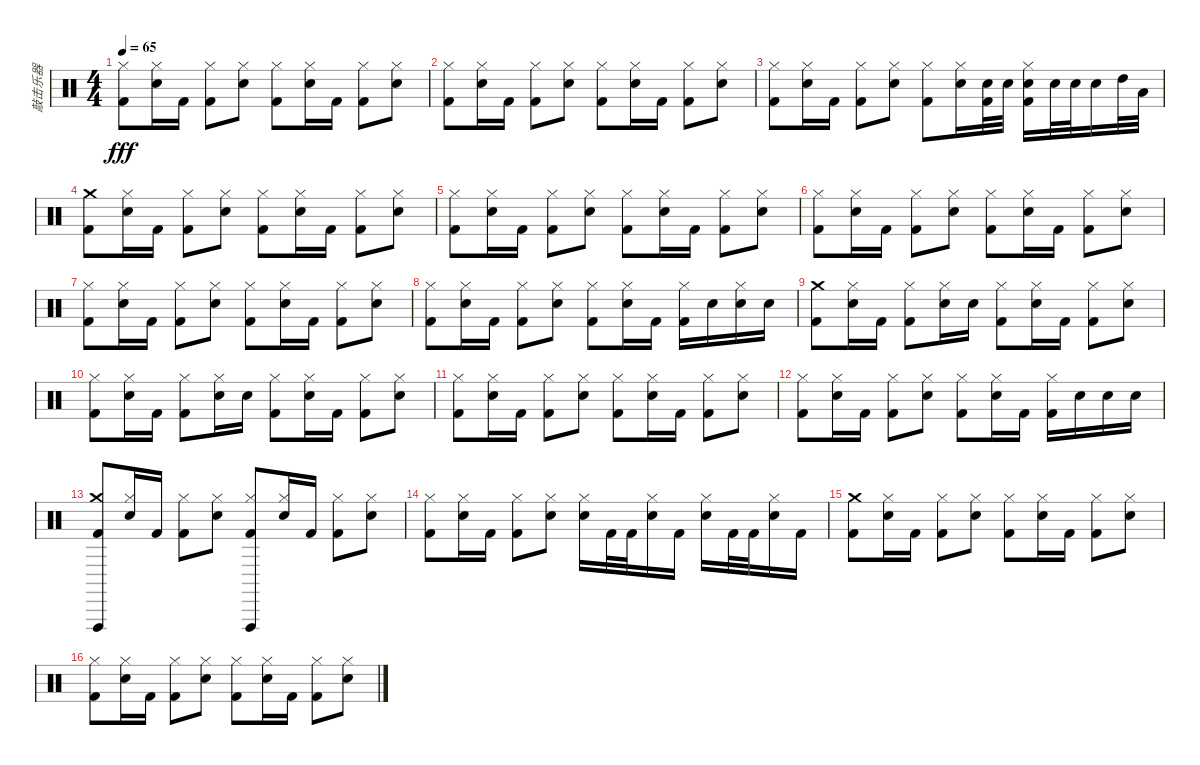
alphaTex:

\track ("敲击乐器" "敲击乐器") {instrument percussion}
\staff {score}
\articulation defaults
\ts (4 4)
\tempo 65
\clef neutral
\ks c
("Hi-Hat (closed)" "Kick (hit) 2").8{dy fff} ("Hi-Hat (closed)" "Electric Snare (hit)").16 "Kick (hit) 2".16 ("Hi-Hat (closed)" "Kick (hit) 2").8 ("Hi-Hat (closed)" "Electric Snare (hit)").8 ("Hi-Hat (closed)" "Kick (hit) 2").8 ("Hi-Hat (closed)" "Electric Snare (hit)").16 "Kick (hit) 2".16 ("Hi-Hat (closed)" "Kick (hit) 2").8 ("Hi-Hat (closed)" "Electric Snare (hit)").8 |
("Hi-Hat (closed)" "Kick (hit) 2").8 ("Hi-Hat (closed)" "Electric Snare (hit)").16 "Kick (hit) 2".16 ("Hi-Hat (closed)" "Kick (hit) 2").8 ("Hi-Hat (closed)" "Electric Snare (hit)").8 ("Hi-Hat (closed)" "Kick (hit) 2").8 ("Hi-Hat (closed)" "Electric Snare (hit)").16 "Kick (hit) 2".16 ("Hi-Hat (closed)" "Kick (hit) 2").8 ("Hi-Hat (closed)" "Electric Snare (hit)").8 |
("Hi-Hat (closed)" "Kick (hit) 2").8 ("Hi-Hat (closed)" "Electric Snare (hit)").16 "Kick (hit) 2".16 ("Hi-Hat (closed)" "Kick (hit) 2").8 ("Hi-Hat (closed)" "Electric Snare (hit)").8 ("Hi-Hat (closed)" "Kick (hit) 2").8 ("Hi-Hat (closed)" "Electric Snare (hit)").16 ("Electric Snare (hit)" "Kick (hit) 2").32 "Electric Snare (hit)".32 ("Hi-Hat (closed)" "Electric Snare (hit)" "Kick (hit) 2").16 "Electric Snare (hit)".32 "Electric Snare (hit)".32 "Electric Snare (hit)".16 "High Tom (hit)".32 "Low Tom (hit)".32 |
("Crash medium (hit)" "Kick (hit) 2").8 ("Hi-Hat (closed)" "Electric Snare (hit)").16 "Kick (hit) 2".16 ("Hi-Hat (closed)" "Kick (hit) 2").8 ("Hi-Hat (closed)" "Electric Snare (hit)").8 ("Hi-Hat (closed)" "Kick (hit) 2").8 ("Hi-Hat (closed)" "Electric Snare (hit)").16 "Kick (hit) 2".16 ("Hi-Hat (closed)" "Kick (hit) 2").8 ("Hi-Hat (closed)" "Electric Snare (hit)").8 |
("Hi-Hat (closed)" "Kick (hit) 2").8 ("Hi-Hat (closed)" "Electric Snare (hit)").16 "Kick (hit) 2".16 ("Hi-Hat (closed)" "Kick (hit) 2").8 ("Hi-Hat (closed)" "Electric Snare (hit)").8 ("Hi-Hat (closed)" "Kick (hit) 2").8 ("Hi-Hat (closed)" "Electric Snare (hit)").16 "Kick (hit) 2".16 ("Hi-Hat (closed)" "Kick (hit) 2").8 ("Hi-Hat (closed)" "Electric Snare (hit)").8 |
("Hi-Hat (closed)" "Kick (hit) 2").8 ("Hi-Hat (closed)" "Electric Snare (hit)").16 "Kick (hit) 2".16 ("Hi-Hat (closed)" "Kick (hit) 2").8 ("Hi-Hat (closed)" "Electric Snare (hit)").8 ("Hi-Hat (closed)" "Kick (hit) 2").8 ("Hi-Hat (closed)" "Electric Snare (hit)").16 "Kick (hit) 2".16 ("Hi-Hat (closed)" "Kick (hit) 2").8 ("Hi-Hat (closed)" "Electric Snare (hit)").8 |
("Hi-Hat (closed)" "Kick (hit) 2").8 ("Hi-Hat (closed)" "Electric Snare (hit)").16 "Kick (hit) 2".16 ("Hi-Hat (closed)" "Kick (hit) 2").8 ("Hi-Hat (closed)" "Electric Snare (hit)").8 ("Hi-Hat (closed)" "Kick (hit) 2").8 ("Hi-Hat (closed)" "Electric Snare (hit)").16 "Kick (hit) 2".16 ("Hi-Hat (closed)" "Kick (hit) 2").8 ("Hi-Hat (closed)" "Electric Snare (hit)").8 |
("Hi-Hat (closed)" "Kick (hit) 2").8 ("Hi-Hat (closed)" "Electric Snare (hit)").16 "Kick (hit) 2".16 ("Hi-Hat (closed)" "Kick (hit) 2").8 ("Hi-Hat (closed)" "Electric Snare (hit)").8 ("Hi-Hat (closed)" "Kick (hit) 2").8 ("Hi-Hat (closed)" "Electric Snare (hit)").16 "Kick (hit) 2".16 ("Hi-Hat (closed)" "Kick (hit) 2").16 "Electric Snare (hit)".16 ("Hi-Hat (closed)" "Electric Snare (hit)").16 "Electric Snare (hit)".16 |
("Crash medium (hit)" "Kick (hit) 2").8 ("Hi-Hat (closed)" "Electric Snare (hit)").16 "Kick (hit) 2".16 ("Hi-Hat (closed)" "Kick (hit) 2").8 ("Hi-Hat (closed)" "Electric Snare (hit)").16 "Electric Snare (hit)".16 ("Hi-Hat (closed)" "Kick (hit) 2").8 ("Hi-Hat (closed)" "Electric Snare (hit)").16 "Kick (hit) 2".16 ("Hi-Hat (closed)" "Kick (hit) 2").8 ("Hi-Hat (closed)" "Electric Snare (hit)").8 |
("Hi-Hat (closed)" "Kick (hit) 2").8 ("Hi-Hat (closed)" "Electric Snare (hit)").16 "Kick (hit) 2".16 ("Hi-Hat (closed)" "Kick (hit) 2").8 ("Hi-Hat (closed)" "Electric Snare (hit)").16 "Electric Snare (hit)".16 ("Hi-Hat (closed)" "Kick (hit) 2").8 ("Hi-Hat (closed)" "Electric Snare (hit)").16 "Kick (hit) 2".16 ("Hi-Hat (closed)" "Kick (hit) 2").8 ("Hi-Hat (closed)" "Electric Snare (hit)").8 |
("Hi-Hat (closed)" "Kick (hit) 2").8 ("Hi-Hat (closed)" "Electric Snare (hit)").16 "Kick (hit) 2".16 ("Hi-Hat (closed)" "Kick (hit) 2").8 ("Hi-Hat (closed)" "Electric Snare (hit)").8 ("Hi-Hat (closed)" "Kick (hit) 2").8 ("Hi-Hat (closed)" "Electric Snare (hit)").16 "Kick (hit) 2".16 ("Hi-Hat (closed)" "Kick (hit) 2").8 ("Hi-Hat (closed)" "Electric Snare (hit)").8 |
("Hi-Hat (closed)" "Kick (hit) 2").8 ("Hi-Hat (closed)" "Electric Snare (hit)").16 "Kick (hit) 2".16 ("Hi-Hat (closed)" "Kick (hit) 2").8 ("Hi-Hat (closed)" "Electric Snare (hit)").8 ("Hi-Hat (closed)" "Kick (hit) 2").8 ("Hi-Hat (closed)" "Electric Snare (hit)").16 "Kick (hit) 2".16 ("Hi-Hat (closed)" "Kick (hit) 2").16 "Electric Snare (hit)".16 "Electric Snare (hit)".16 "Electric Snare (hit)".16 |
("Crash medium (hit)" "Vibraslap (hit)" "Kick (hit) 2").8 ("Hi-Hat (closed)" "Electric Snare (hit)").16 "Kick (hit) 2".16 ("Hi-Hat (closed)" "Kick (hit) 2").8 ("Hi-Hat (closed)" "Electric Snare (hit)").8 ("Hi-Hat (closed)" "Vibraslap (hit)" "Kick (hit) 2").8 ("Hi-Hat (closed)" "Electric Snare (hit)").16 "Kick (hit) 2".16 ("Hi-Hat (closed)" "Kick (hit) 2").8 ("Hi-Hat (closed)" "Electric Snare (hit)").8 |
("Hi-Hat (closed)" "Kick (hit) 2").8 ("Hi-Hat (closed)" "Electric Snare (hit)").16 "Kick (hit) 2".16 ("Hi-Hat (closed)" "Kick (hit) 2").8 ("Hi-Hat (closed)" "Electric Snare (hit)").8 ("Hi-Hat (closed)" "Electric Snare (hit)").16 "Kick (hit) 2".32 "Kick (hit) 2".32 ("Hi-Hat (closed)" "Electric Snare (hit)").16 "Kick (hit) 2".16 ("Hi-Hat (closed)" "Electric Snare (hit)").16 "Kick (hit) 2".32 "Kick (hit) 2".32 ("Hi-Hat (closed)" "Electric Snare (hit)").16 "Kick (hit) 2".16 |
("Crash medium (hit)" "Kick (hit) 2").8 ("Hi-Hat (closed)" "Electric Snare (hit)").16 "Kick (hit) 2".16 ("Hi-Hat (closed)" "Kick (hit) 2").8 ("Hi-Hat (closed)" "Electric Snare (hit)").8 ("Hi-Hat (closed)" "Kick (hit) 2").8 ("Hi-Hat (closed)" "Electric Snare (hit)").16 "Kick (hit) 2".16 ("Hi-Hat (closed)" "Kick (hit) 2").8 ("Hi-Hat (closed)" "Electric Snare (hit)").8 |
("Hi-Hat (closed)" "Kick (hit) 2").8 ("Hi-Hat (closed)" "Electric Snare (hit)").16 "Kick (hit) 2".16 ("Hi-Hat (closed)" "Kick (hit) 2").8 ("Hi-Hat (closed)" "Electric Snare (hit)").8 ("Hi-Hat (closed)" "Kick (hit) 2").8 ("Hi-Hat (closed)" "Electric Snare (hit)").16 "Kick (hit) 2".16 ("Hi-Hat (closed)" "Kick (hit) 2").8 ("Hi-Hat (closed)" "Electric Snare (hit)").8
